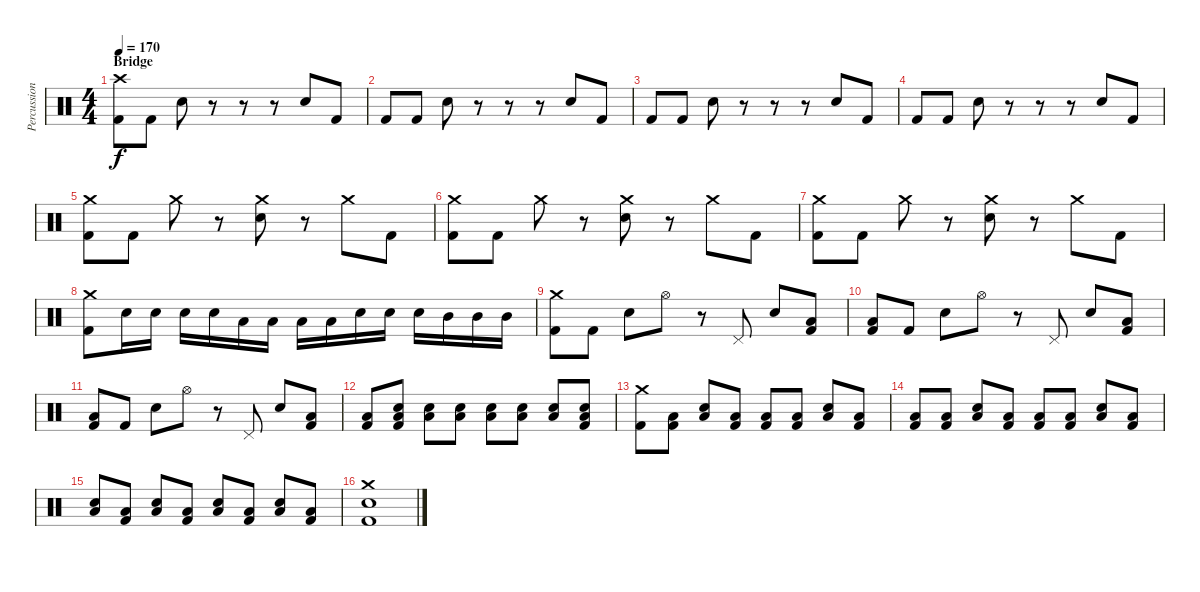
\track ("Percussion" "Percussion") {instrument percussion}
\staff {score}
\articulation defaults
\ts (4 4)
\section ("" "Bridge")
\tempo 170
\clef neutral
\ks c
("Crash high (hit)" "Kick (hit) 2").8{dy f} "Kick (hit) 2".8 "Electric Snare (hit)".8 r.8 r.8 r.8 "Electric Snare (hit)".8 "Kick (hit) 2".8 |
"Kick (hit) 2".8 "Kick (hit) 2".8 "Electric Snare (hit)".8 r.8 r.8 r.8 "Electric Snare (hit)".8 "Kick (hit) 2".8 |
"Kick (hit) 2".8 "Kick (hit) 2".8 "Electric Snare (hit)".8 r.8 r.8 r.8 "Electric Snare (hit)".8 "Kick (hit) 2".8 |
"Kick (hit) 2".8 "Kick (hit) 2".8 "Electric Snare (hit)".8 r.8 r.8 r.8 "Electric Snare (hit)".8 "Kick (hit) 2".8 |
("Kick (hit) 2" "Crash medium (hit)").8 "Kick (hit) 2".8 "Crash medium (hit)".8 r.8 ("Electric Snare (hit)" "Crash medium (hit)").8 r.8 "Crash medium (hit)".8 "Kick (hit) 2".8 |
("Kick (hit) 2" "Crash medium (hit)").8 "Kick (hit) 2".8 "Crash medium (hit)".8 r.8 ("Electric Snare (hit)" "Crash medium (hit)").8 r.8 "Crash medium (hit)".8 "Kick (hit) 2".8 |
("Kick (hit) 2" "Crash medium (hit)").8 "Kick (hit) 2".8 "Crash medium (hit)".8 r.8 ("Electric Snare (hit)" "Crash medium (hit)").8 r.8 "Crash medium (hit)".8 "Kick (hit) 2".8 |
("Kick (hit) 2" "Crash medium (hit)").8 "Electric Snare (hit)".16 "Electric Snare (hit)".16 "Electric Snare (hit)".16 "Electric Snare (hit)".16 "Low Tom (hit)".16 "Low Tom (hit)".16 "Low Tom (hit)".16 "Low Tom (hit)".16 "Electric Snare (hit)".16 "Electric Snare (hit)".16 "Electric Snare (hit)".16 "Mid Tom (hit)".16 "Mid Tom (hit)".16 "Mid Tom (hit)".16 |
("Crash medium (hit)" "Kick (hit) 2").8 "Kick (hit) 2".8 "Electric Snare (hit)".8 "Hi-Hat (open)".8 r.8 "Pedal Hi-Hat (hit)".8 "Electric Snare (hit)".8 ("Kick (hit) 2" "Low Tom (hit)").8 |
("Kick (hit) 2" "Low Floor Tom (hit)").8 "Kick (hit) 2".8 "Electric Snare (hit)".8 "Hi-Hat (open)".8 r.8 "Pedal Hi-Hat (hit)".8 "Electric Snare (hit)".8 ("Kick (hit) 2" "Low Tom (hit)").8 |
("Kick (hit) 2" "Low Floor Tom (hit)").8 "Kick (hit) 2".8 "Electric Snare (hit)".8 "Hi-Hat (open)".8 r.8 "Pedal Hi-Hat (hit)".8 "Electric Snare (hit)".8 ("Kick (hit) 2" "Low Tom (hit)").8 |
("Kick (hit) 2" "Low Floor Tom (hit)").8 ("Kick (hit) 2" "Electric Snare (hit)" "Low Tom (hit)").8 ("Electric Snare (hit)" "Low Tom (hit)").8 ("Electric Snare (hit)" "Low Tom (hit)").8 ("Electric Snare (hit)" "Low Tom (hit)").8 ("Electric Snare (hit)" "Low Tom (hit)").8 ("Electric Snare (hit)" "Low Tom (hit)").8 ("Kick (hit) 2" "Electric Snare (hit)" "Low Tom (hit)").8 |
("Crash medium (hit)" "Kick (hit) 2").8 ("Low Floor Tom (hit)" "Kick (hit) 2").8 ("Low Floor Tom (hit)" "Electric Snare (hit)").8 ("Low Floor Tom (hit)" "Kick (hit) 2").8 ("Low Floor Tom (hit)" "Kick (hit) 2").8 ("Low Floor Tom (hit)" "Kick (hit) 2").8 ("Low Floor Tom (hit)" "Electric Snare (hit)").8 ("Low Floor Tom (hit)" "Kick (hit) 2").8 |
("Low Floor Tom (hit)" "Kick (hit) 2").8 ("Low Floor Tom (hit)" "Kick (hit) 2").8 ("Low Floor Tom (hit)" "Electric Snare (hit)").8 ("Low Floor Tom (hit)" "Kick (hit) 2").8 ("Low Floor Tom (hit)" "Kick (hit) 2").8 ("Low Floor Tom (hit)" "Kick (hit) 2").8 ("Low Floor Tom (hit)" "Electric Snare (hit)").8 ("Low Floor Tom (hit)" "Kick (hit) 2").8 |
("Low Floor Tom (hit)" "Electric Snare (hit)").8 ("Low Floor Tom (hit)" "Kick (hit) 2").8 ("Low Floor Tom (hit)" "Electric Snare (hit)").8 ("Low Floor Tom (hit)" "Kick (hit) 2").8 ("Low Floor Tom (hit)" "Electric Snare (hit)").8 ("Low Floor Tom (hit)" "Kick (hit) 2").8 ("Low Floor Tom (hit)" "Electric Snare (hit)").8 ("Low Floor Tom (hit)" "Kick (hit) 2").8 |
("Crash medium (hit)" "Electric Snare (hit)" "Kick (hit) 2").1
